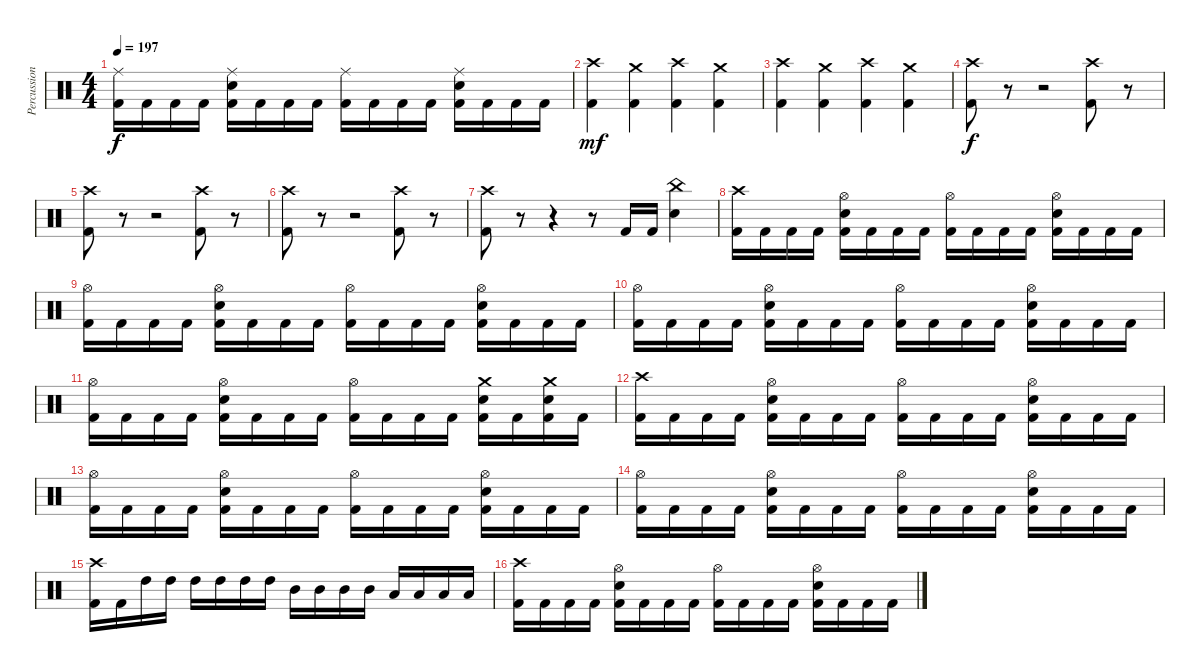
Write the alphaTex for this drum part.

\track ("Percussions" "Percussion") {instrument percussion}
\staff {score}
\articulation defaults
\ts (4 4)
\tempo 197
\clef neutral
\ks c
("Ride (middle)" "Kick (hit) 2").16{dy f} "Kick (hit) 2".16 "Kick (hit) 2".16 "Kick (hit) 2".16 ("Ride (middle)" "Snare (hit) 2" "Kick (hit) 2").16 "Kick (hit) 2".16 "Kick (hit) 2".16 "Kick (hit) 2".16 ("Ride (middle)" "Kick (hit) 2").16 "Kick (hit) 2".16 "Kick (hit) 2".16 "Kick (hit) 2".16 ("Ride (middle)" "Snare (hit) 2" "Kick (hit) 2").16 "Kick (hit) 2".16 "Kick (hit) 2".16 "Kick (hit) 2".16 |
("Crash high (hit)" "Kick (hit) 2").4{dy mf} ("Crash medium (hit)" "Kick (hit) 2").4 ("Crash high (hit)" "Kick (hit) 2").4 ("Crash medium (hit)" "Kick (hit) 2").4 |
("Crash high (hit)" "Kick (hit) 2").4 ("Crash medium (hit)" "Kick (hit) 2").4 ("Crash high (hit)" "Kick (hit) 2").4 ("Crash medium (hit)" "Kick (hit) 2").4 |
("Crash high (hit)" "Kick (hit) 2").8{dy f} r.8 r.2 ("Crash high (hit)" "Kick (hit) 2").8 r.8 |
("Crash high (hit)" "Kick (hit) 2").8 r.8 r.2 ("Crash high (hit)" "Kick (hit) 2").8 r.8 |
("Crash high (hit)" "Kick (hit) 2").8 r.8 r.2 ("Crash high (hit)" "Kick (hit) 2").8 r.8 |
("Crash high (hit)" "Kick (hit) 2").8 r.8 r.4 r.8 "Kick (hit) 2".16 "Kick (hit) 2".16 ("China (hit)" "Snare (hit) 2").4 |
("Crash high (hit)" "Kick (hit) 2").16 "Kick (hit) 2".16 "Kick (hit) 2".16 "Kick (hit) 2".16 ("Hi-Hat (open)" "Snare (hit) 2" "Kick (hit) 2").16 "Kick (hit) 2".16 "Kick (hit) 2".16 "Kick (hit) 2".16 ("Hi-Hat (open)" "Kick (hit) 2").16 "Kick (hit) 2".16 "Kick (hit) 2".16 "Kick (hit) 2".16 ("Hi-Hat (open)" "Snare (hit) 2" "Kick (hit) 2").16 "Kick (hit) 2".16 "Kick (hit) 2".16 "Kick (hit) 2".16 |
("Hi-Hat (open)" "Kick (hit) 2").16 "Kick (hit) 2".16 "Kick (hit) 2".16 "Kick (hit) 2".16 ("Hi-Hat (open)" "Snare (hit) 2" "Kick (hit) 2").16 "Kick (hit) 2".16 "Kick (hit) 2".16 "Kick (hit) 2".16 ("Hi-Hat (open)" "Kick (hit) 2").16 "Kick (hit) 2".16 "Kick (hit) 2".16 "Kick (hit) 2".16 ("Hi-Hat (open)" "Snare (hit) 2" "Kick (hit) 2").16 "Kick (hit) 2".16 "Kick (hit) 2".16 "Kick (hit) 2".16 |
("Hi-Hat (open)" "Kick (hit) 2").16 "Kick (hit) 2".16 "Kick (hit) 2".16 "Kick (hit) 2".16 ("Hi-Hat (open)" "Snare (hit) 2" "Kick (hit) 2").16 "Kick (hit) 2".16 "Kick (hit) 2".16 "Kick (hit) 2".16 ("Hi-Hat (open)" "Kick (hit) 2").16 "Kick (hit) 2".16 "Kick (hit) 2".16 "Kick (hit) 2".16 ("Hi-Hat (open)" "Snare (hit) 2" "Kick (hit) 2").16 "Kick (hit) 2".16 "Kick (hit) 2".16 "Kick (hit) 2".16 |
("Hi-Hat (open)" "Kick (hit) 2").16 "Kick (hit) 2".16 "Kick (hit) 2".16 "Kick (hit) 2".16 ("Hi-Hat (open)" "Snare (hit) 2" "Kick (hit) 2").16 "Kick (hit) 2".16 "Kick (hit) 2".16 "Kick (hit) 2".16 ("Hi-Hat (open)" "Kick (hit) 2").16 "Kick (hit) 2".16 "Kick (hit) 2".16 "Kick (hit) 2".16 ("Crash medium (hit)" "Snare (hit) 2" "Kick (hit) 2").16 "Kick (hit) 2".16 ("Crash medium (hit)" "Snare (hit) 2" "Kick (hit) 2").16 "Kick (hit) 2".16 |
("Crash high (hit)" "Kick (hit) 2").16 "Kick (hit) 2".16 "Kick (hit) 2".16 "Kick (hit) 2".16 ("Hi-Hat (open)" "Snare (hit) 2" "Kick (hit) 2").16 "Kick (hit) 2".16 "Kick (hit) 2".16 "Kick (hit) 2".16 ("Hi-Hat (open)" "Kick (hit) 2").16 "Kick (hit) 2".16 "Kick (hit) 2".16 "Kick (hit) 2".16 ("Hi-Hat (open)" "Snare (hit) 2" "Kick (hit) 2").16 "Kick (hit) 2".16 "Kick (hit) 2".16 "Kick (hit) 2".16 |
("Hi-Hat (open)" "Kick (hit) 2").16 "Kick (hit) 2".16 "Kick (hit) 2".16 "Kick (hit) 2".16 ("Hi-Hat (open)" "Snare (hit) 2" "Kick (hit) 2").16 "Kick (hit) 2".16 "Kick (hit) 2".16 "Kick (hit) 2".16 ("Hi-Hat (open)" "Kick (hit) 2").16 "Kick (hit) 2".16 "Kick (hit) 2".16 "Kick (hit) 2".16 ("Hi-Hat (open)" "Snare (hit) 2" "Kick (hit) 2").16 "Kick (hit) 2".16 "Kick (hit) 2".16 "Kick (hit) 2".16 |
("Hi-Hat (open)" "Kick (hit) 2").16 "Kick (hit) 2".16 "Kick (hit) 2".16 "Kick (hit) 2".16 ("Hi-Hat (open)" "Snare (hit) 2" "Kick (hit) 2").16 "Kick (hit) 2".16 "Kick (hit) 2".16 "Kick (hit) 2".16 ("Hi-Hat (open)" "Kick (hit) 2").16 "Kick (hit) 2".16 "Kick (hit) 2".16 "Kick (hit) 2".16 ("Hi-Hat (open)" "Snare (hit) 2" "Kick (hit) 2").16 "Kick (hit) 2".16 "Kick (hit) 2".16 "Kick (hit) 2".16 |
("Crash high (hit)" "Kick (hit) 2").16 "Kick (hit) 2".16 "High Tom (hit)".16 "High Tom (hit)".16 "High Tom (hit)".16 "High Tom (hit)".16 "High Tom (hit)".16 "High Tom (hit)".16 "Mid Tom (hit)".16 "Mid Tom (hit)".16 "Mid Tom (hit)".16 "Mid Tom (hit)".16 "Low Tom (hit)".16 "Low Tom (hit)".16 "Low Tom (hit)".16 "Low Tom (hit)".16 |
("Crash high (hit)" "Kick (hit) 2").16 "Kick (hit) 2".16 "Kick (hit) 2".16 "Kick (hit) 2".16 ("Hi-Hat (open)" "Snare (hit) 2" "Kick (hit) 2").16 "Kick (hit) 2".16 "Kick (hit) 2".16 "Kick (hit) 2".16 ("Hi-Hat (open)" "Kick (hit) 2").16 "Kick (hit) 2".16 "Kick (hit) 2".16 "Kick (hit) 2".16 ("Hi-Hat (open)" "Snare (hit) 2" "Kick (hit) 2").16 "Kick (hit) 2".16 "Kick (hit) 2".16 "Kick (hit) 2".16
